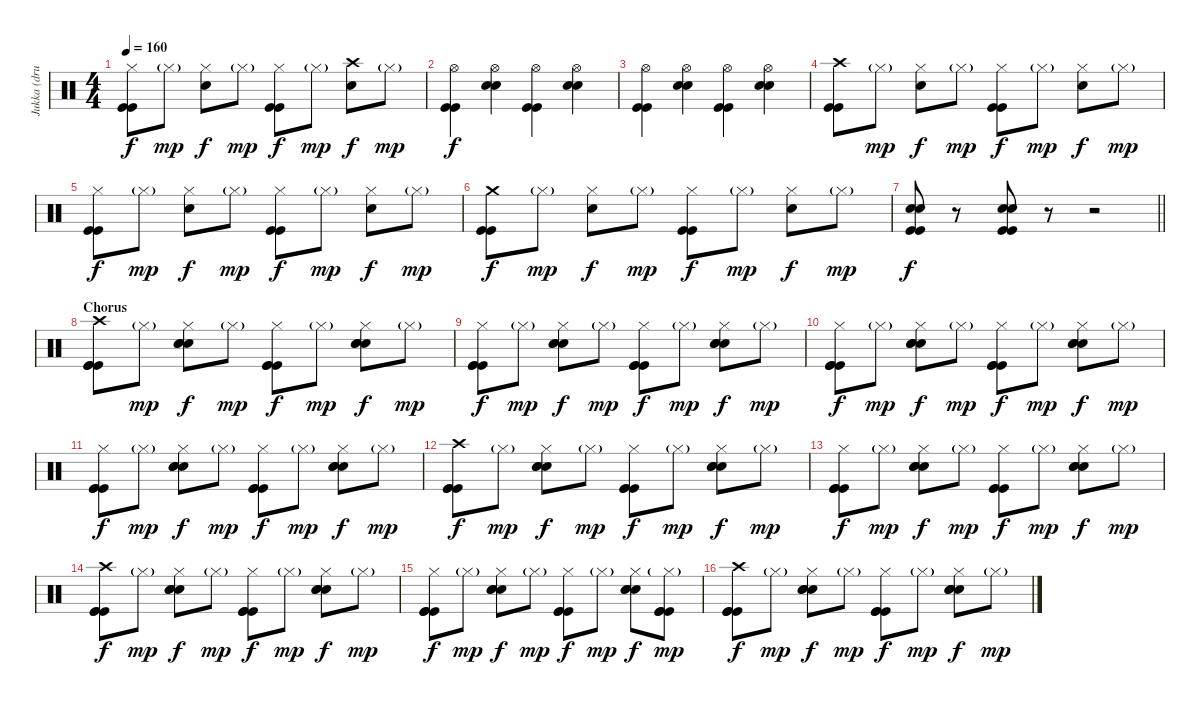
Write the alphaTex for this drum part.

\track ("Jukka (drums)" "Jukka (dru") {instrument percussion}
\staff {score}
\articulation defaults
\ts (4 4)
\tempo 160
\clef neutral
\ks c
("Hi-Hat (closed)" "Kick (hit)" "Kick (hit)").8{dy f} "Hi-Hat (closed)"{g}.8{dy mp} ("Hi-Hat (closed)" "Electric Snare (hit)").8{dy f} "Hi-Hat (closed)"{g}.8{dy mp} ("Hi-Hat (closed)" "Kick (hit)" "Kick (hit)").8{dy f} "Hi-Hat (closed)"{g}.8{dy mp} ("Crash high (hit)" "Electric Snare (hit)").8{dy f} "Hi-Hat (closed)"{g}.8{dy mp} |
("Hi-Hat (open)" "Kick (hit)" "Kick (hit)").4{dy f} ("Hi-Hat (open)" "Electric Snare (hit)" "Electric Snare (hit)").4 ("Hi-Hat (open)" "Kick (hit)" "Kick (hit)").4 ("Hi-Hat (open)" "Electric Snare (hit)" "Electric Snare (hit)").4 |
("Hi-Hat (open)" "Kick (hit)" "Kick (hit)").4 ("Hi-Hat (open)" "Electric Snare (hit)" "Electric Snare (hit)").4 ("Hi-Hat (open)" "Kick (hit)" "Kick (hit)").4 ("Hi-Hat (open)" "Electric Snare (hit)" "Electric Snare (hit)").4 |
("Crash high (hit)" "Kick (hit)" "Kick (hit)").8 "Hi-Hat (closed)"{g}.8{dy mp} ("Hi-Hat (closed)" "Electric Snare (hit)").8{dy f} "Hi-Hat (closed)"{g}.8{dy mp} ("Hi-Hat (closed)" "Kick (hit)" "Kick (hit)").8{dy f} "Hi-Hat (closed)"{g}.8{dy mp} ("Hi-Hat (closed)" "Electric Snare (hit)").8{dy f} "Hi-Hat (closed)"{g}.8{dy mp} |
("Hi-Hat (closed)" "Kick (hit)" "Kick (hit)").8{dy f} "Hi-Hat (closed)"{g}.8{dy mp} ("Hi-Hat (closed)" "Electric Snare (hit)").8{dy f} "Hi-Hat (closed)"{g}.8{dy mp} ("Hi-Hat (closed)" "Kick (hit)" "Kick (hit)").8{dy f} "Hi-Hat (closed)"{g}.8{dy mp} ("Hi-Hat (closed)" "Electric Snare (hit)").8{dy f} "Hi-Hat (closed)"{g}.8{dy mp} |
("Crash medium (hit)" "Kick (hit)" "Kick (hit)").8{dy f} "Hi-Hat (closed)"{g}.8{dy mp} ("Hi-Hat (closed)" "Electric Snare (hit)").8{dy f} "Hi-Hat (closed)"{g}.8{dy mp} ("Hi-Hat (closed)" "Kick (hit)" "Kick (hit)").8{dy f} "Hi-Hat (closed)"{g}.8{dy mp} ("Hi-Hat (closed)" "Electric Snare (hit)").8{dy f} "Hi-Hat (closed)"{g}.8{dy mp} |
\barLineRight lightlight
("Electric Snare (hit)" "Electric Snare (hit)" "Kick (hit)" "Kick (hit)").8{dy f} r.8 ("Electric Snare (hit)" "Electric Snare (hit)" "Kick (hit)" "Kick (hit)").8 r.8 r.2 |
\section ("" "Chorus")
("Crash high (hit)" "Kick (hit)" "Kick (hit)" "Kick (hit)").8 "Hi-Hat (closed)"{g}.8{dy mp} ("Hi-Hat (closed)" "Electric Snare (hit)" "Electric Snare (hit)" "Electric Snare (hit)").8{dy f} "Hi-Hat (closed)"{g}.8{dy mp} ("Hi-Hat (closed)" "Kick (hit)" "Kick (hit)" "Kick (hit)").8{dy f} "Hi-Hat (closed)"{g}.8{dy mp} ("Hi-Hat (closed)" "Electric Snare (hit)" "Electric Snare (hit)" "Electric Snare (hit)").8{dy f} "Hi-Hat (closed)"{g}.8{dy mp} |
("Hi-Hat (closed)" "Kick (hit)" "Kick (hit)" "Kick (hit)").8{dy f} "Hi-Hat (closed)"{g}.8{dy mp} ("Hi-Hat (closed)" "Electric Snare (hit)" "Electric Snare (hit)" "Electric Snare (hit)").8{dy f} "Hi-Hat (closed)"{g}.8{dy mp} ("Hi-Hat (closed)" "Kick (hit)" "Kick (hit)" "Kick (hit)").8{dy f} "Hi-Hat (closed)"{g}.8{dy mp} ("Hi-Hat (closed)" "Electric Snare (hit)" "Electric Snare (hit)" "Electric Snare (hit)").8{dy f} "Hi-Hat (closed)"{g}.8{dy mp} |
("Hi-Hat (closed)" "Kick (hit)" "Kick (hit)" "Kick (hit)").8{dy f} "Hi-Hat (closed)"{g}.8{dy mp} ("Hi-Hat (closed)" "Electric Snare (hit)" "Electric Snare (hit)" "Electric Snare (hit)").8{dy f} "Hi-Hat (closed)"{g}.8{dy mp} ("Hi-Hat (closed)" "Kick (hit)" "Kick (hit)" "Kick (hit)").8{dy f} "Hi-Hat (closed)"{g}.8{dy mp} ("Hi-Hat (closed)" "Electric Snare (hit)" "Electric Snare (hit)" "Electric Snare (hit)").8{dy f} "Hi-Hat (closed)"{g}.8{dy mp} |
("Hi-Hat (closed)" "Kick (hit)" "Kick (hit)" "Kick (hit)").8{dy f} "Hi-Hat (closed)"{g}.8{dy mp} ("Hi-Hat (closed)" "Electric Snare (hit)" "Electric Snare (hit)" "Electric Snare (hit)").8{dy f} "Hi-Hat (closed)"{g}.8{dy mp} ("Hi-Hat (closed)" "Kick (hit)" "Kick (hit)" "Kick (hit)").8{dy f} "Hi-Hat (closed)"{g}.8{dy mp} ("Hi-Hat (closed)" "Electric Snare (hit)" "Electric Snare (hit)" "Electric Snare (hit)").8{dy f} "Hi-Hat (closed)"{g}.8{dy mp} |
("Crash high (hit)" "Kick (hit)" "Kick (hit)" "Kick (hit)").8{dy f} "Hi-Hat (closed)"{g}.8{dy mp} ("Hi-Hat (closed)" "Electric Snare (hit)" "Electric Snare (hit)" "Electric Snare (hit)").8{dy f} "Hi-Hat (closed)"{g}.8{dy mp} ("Hi-Hat (closed)" "Kick (hit)" "Kick (hit)" "Kick (hit)").8{dy f} "Hi-Hat (closed)"{g}.8{dy mp} ("Hi-Hat (closed)" "Electric Snare (hit)" "Electric Snare (hit)" "Electric Snare (hit)").8{dy f} "Hi-Hat (closed)"{g}.8{dy mp} |
("Hi-Hat (closed)" "Kick (hit)" "Kick (hit)" "Kick (hit)").8{dy f} "Hi-Hat (closed)"{g}.8{dy mp} ("Hi-Hat (closed)" "Electric Snare (hit)" "Electric Snare (hit)" "Electric Snare (hit)").8{dy f} "Hi-Hat (closed)"{g}.8{dy mp} ("Hi-Hat (closed)" "Kick (hit)" "Kick (hit)" "Kick (hit)").8{dy f} "Hi-Hat (closed)"{g}.8{dy mp} ("Hi-Hat (closed)" "Electric Snare (hit)" "Electric Snare (hit)" "Electric Snare (hit)").8{dy f} "Hi-Hat (closed)"{g}.8{dy mp} |
("Crash high (hit)" "Kick (hit)" "Kick (hit)" "Kick (hit)").8{dy f} "Hi-Hat (closed)"{g}.8{dy mp} ("Hi-Hat (closed)" "Electric Snare (hit)" "Electric Snare (hit)" "Electric Snare (hit)").8{dy f} "Hi-Hat (closed)"{g}.8{dy mp} ("Hi-Hat (closed)" "Kick (hit)" "Kick (hit)" "Kick (hit)").8{dy f} "Hi-Hat (closed)"{g}.8{dy mp} ("Hi-Hat (closed)" "Electric Snare (hit)" "Electric Snare (hit)" "Electric Snare (hit)").8{dy f} "Hi-Hat (closed)"{g}.8{dy mp} |
("Hi-Hat (closed)" "Kick (hit)" "Kick (hit)" "Kick (hit)").8{dy f} "Hi-Hat (closed)"{g}.8{dy mp} ("Hi-Hat (closed)" "Electric Snare (hit)" "Electric Snare (hit)" "Electric Snare (hit)").8{dy f} "Hi-Hat (closed)"{g}.8{dy mp} ("Hi-Hat (closed)" "Kick (hit)" "Kick (hit)" "Kick (hit)").8{dy f} "Hi-Hat (closed)"{g}.8{dy mp} ("Hi-Hat (closed)" "Electric Snare (hit)" "Electric Snare (hit)" "Electric Snare (hit)").8{dy f} ("Hi-Hat (closed)"{g} "Kick (hit)" "Kick (hit)" "Kick (hit)").8{dy mp} |
("Crash high (hit)" "Kick (hit)" "Kick (hit)" "Kick (hit)").8{dy f} "Hi-Hat (closed)"{g}.8{dy mp} ("Hi-Hat (closed)" "Electric Snare (hit)" "Electric Snare (hit)" "Electric Snare (hit)").8{dy f} "Hi-Hat (closed)"{g}.8{dy mp} ("Hi-Hat (closed)" "Kick (hit)" "Kick (hit)" "Kick (hit)").8{dy f} "Hi-Hat (closed)"{g}.8{dy mp} ("Hi-Hat (closed)" "Electric Snare (hit)" "Electric Snare (hit)" "Electric Snare (hit)").8{dy f} "Hi-Hat (closed)"{g}.8{dy mp}
